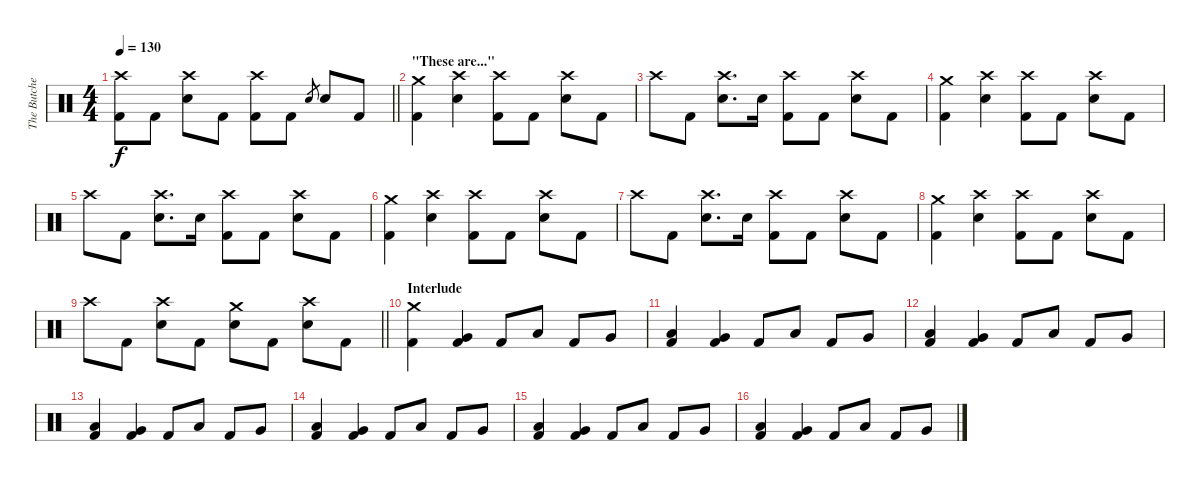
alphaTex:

\track ("The Butcher (Drums)" "The Butche") {instrument percussion}
\staff {score}
\articulation defaults
\ts (4 4)
\tempo 130
\clef neutral
\barLineRight lightlight
\ks c
("Crash high (hit)" "Kick (hit) 2").8{dy f} "Kick (hit) 2".8 ("Crash high (hit)" "Electric Snare (hit)").8 "Kick (hit) 2".8 ("Crash high (hit)" "Kick (hit) 2").8 "Kick (hit) 2".8 "Electric Snare (hit)".8{gr} "Electric Snare (hit)".8 "Kick (hit) 2".8 |
\section ("" "\"These are...\"")
("Crash medium (hit)" "Kick (hit) 2").4 ("Crash high (hit)" "Electric Snare (hit)").4 ("Crash high (hit)" "Kick (hit) 2").8 "Kick (hit) 2".8 ("Crash high (hit)" "Electric Snare (hit)").8 "Kick (hit) 2".8 |
"Crash high (hit)".8 "Kick (hit) 2".8 ("Crash high (hit)" "Electric Snare (hit)").8{d} "Electric Snare (hit)".16 ("Crash high (hit)" "Kick (hit) 2").8 "Kick (hit) 2".8 ("Crash high (hit)" "Electric Snare (hit)").8 "Kick (hit) 2".8 |
("Crash medium (hit)" "Kick (hit) 2").4 ("Crash high (hit)" "Electric Snare (hit)").4 ("Crash high (hit)" "Kick (hit) 2").8 "Kick (hit) 2".8 ("Crash high (hit)" "Electric Snare (hit)").8 "Kick (hit) 2".8 |
"Crash high (hit)".8 "Kick (hit) 2".8 ("Crash high (hit)" "Electric Snare (hit)").8{d} "Electric Snare (hit)".16 ("Crash high (hit)" "Kick (hit) 2").8 "Kick (hit) 2".8 ("Crash high (hit)" "Electric Snare (hit)").8 "Kick (hit) 2".8 |
("Crash medium (hit)" "Kick (hit) 2").4 ("Crash high (hit)" "Electric Snare (hit)").4 ("Crash high (hit)" "Kick (hit) 2").8 "Kick (hit) 2".8 ("Crash high (hit)" "Electric Snare (hit)").8 "Kick (hit) 2".8 |
"Crash high (hit)".8 "Kick (hit) 2".8 ("Crash high (hit)" "Electric Snare (hit)").8{d} "Electric Snare (hit)".16 ("Crash high (hit)" "Kick (hit) 2").8 "Kick (hit) 2".8 ("Crash high (hit)" "Electric Snare (hit)").8 "Kick (hit) 2".8 |
("Crash medium (hit)" "Kick (hit) 2").4 ("Crash high (hit)" "Electric Snare (hit)").4 ("Crash high (hit)" "Kick (hit) 2").8 "Kick (hit) 2".8 ("Crash high (hit)" "Electric Snare (hit)").8 "Kick (hit) 2".8 |
\barLineRight lightlight "Crash high (hit)".8 "Kick (hit) 2".8
("Crash high (hit)" "Electric Snare (hit)").8 "Kick (hit) 2".8 ("Crash medium (hit)" "Electric Snare (hit)").8 "Kick (hit) 2".8 ("Crash high (hit)" "Electric Snare (hit)").8 "Kick (hit) 2".8 |
\section ("" "Interlude")
("Crash medium (hit)" "Kick (hit) 2").4 ("Very Low Tom (hit)" "Kick (hit) 2").4 "Kick (hit) 2".8 "Low Tom (hit)".8 "Kick (hit) 2".8 "Very Low Tom (hit)".8 |
("Low Floor Tom (hit)" "Kick (hit) 2").4 ("Very Low Tom (hit)" "Kick (hit) 2").4 "Kick (hit) 2".8 "Low Tom (hit)".8 "Kick (hit) 2".8 "Very Low Tom (hit)".8 |
("Low Floor Tom (hit)" "Kick (hit) 2").4 ("Very Low Tom (hit)" "Kick (hit) 2").4 "Kick (hit) 2".8 "Low Tom (hit)".8 "Kick (hit) 2".8 "Very Low Tom (hit)".8 |
("Low Floor Tom (hit)" "Kick (hit) 2").4 ("Very Low Tom (hit)" "Kick (hit) 2").4 "Kick (hit) 2".8 "Low Tom (hit)".8 "Kick (hit) 2".8 "Very Low Tom (hit)".8 |
("Low Floor Tom (hit)" "Kick (hit) 2").4 ("Very Low Tom (hit)" "Kick (hit) 2").4 "Kick (hit) 2".8 "Low Tom (hit)".8 "Kick (hit) 2".8 "Very Low Tom (hit)".8 |
("Low Floor Tom (hit)" "Kick (hit) 2").4 ("Very Low Tom (hit)" "Kick (hit) 2").4 "Kick (hit) 2".8 "Low Tom (hit)".8 "Kick (hit) 2".8 "Very Low Tom (hit)".8 |
("Low Floor Tom (hit)" "Kick (hit) 2").4 ("Very Low Tom (hit)" "Kick (hit) 2").4 "Kick (hit) 2".8 "Low Tom (hit)".8 "Kick (hit) 2".8 "Very Low Tom (hit)".8
